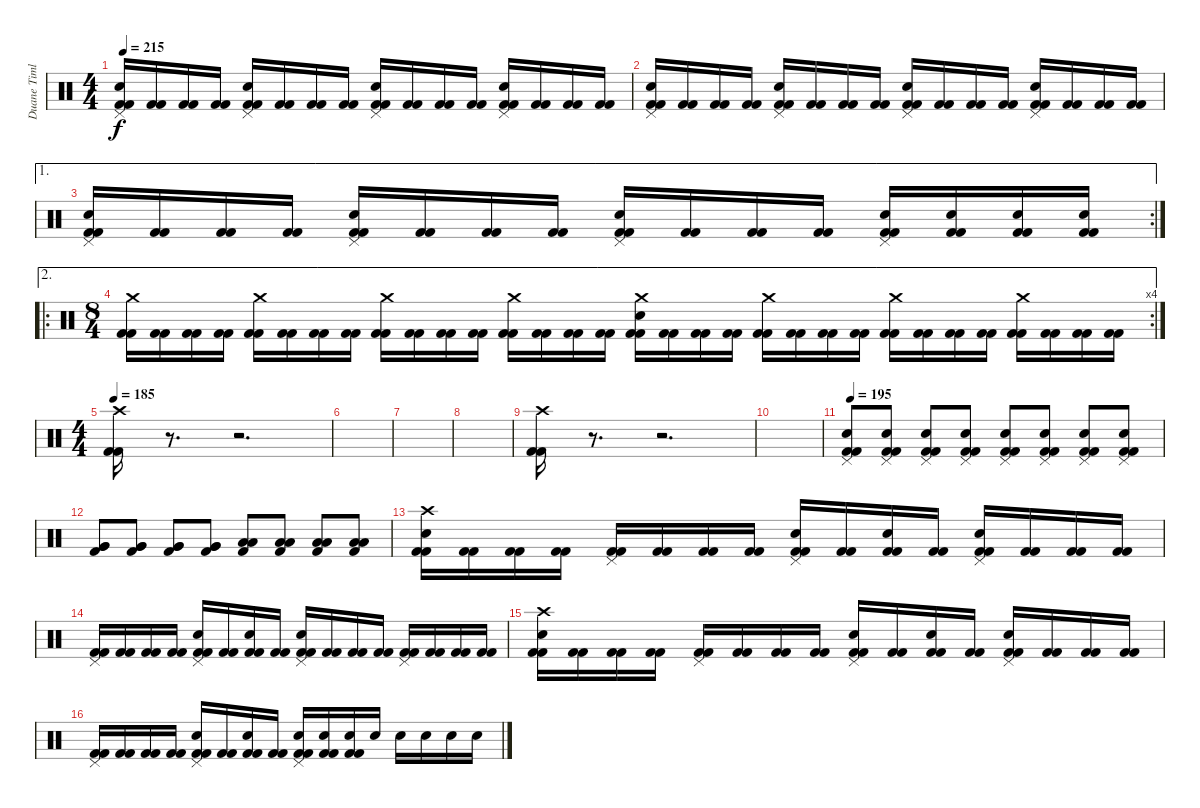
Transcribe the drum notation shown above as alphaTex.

\track ("Duane Timlin" "Duane Timl") {instrument percussion}
\staff {score}
\articulation defaults
\ts (4 4)
\tempo 215
\clef neutral
\ks c
("Pedal Hi-Hat (hit)" "Electric Snare (hit)" "Kick (hit) 2" "Kick (hit) 2").16{dy f} ("Kick (hit) 2" "Kick (hit) 2").16 ("Kick (hit) 2" "Kick (hit) 2").16 ("Kick (hit) 2" "Kick (hit) 2").16 ("Pedal Hi-Hat (hit)" "Electric Snare (hit)" "Kick (hit) 2" "Kick (hit) 2").16 ("Kick (hit) 2" "Kick (hit) 2").16 ("Kick (hit) 2" "Kick (hit) 2").16 ("Kick (hit) 2" "Kick (hit) 2").16 ("Pedal Hi-Hat (hit)" "Electric Snare (hit)" "Kick (hit) 2" "Kick (hit) 2").16 ("Kick (hit) 2" "Kick (hit) 2").16 ("Kick (hit) 2" "Kick (hit) 2").16 ("Kick (hit) 2" "Kick (hit) 2").16 ("Pedal Hi-Hat (hit)" "Electric Snare (hit)" "Kick (hit) 2" "Kick (hit) 2").16 ("Kick (hit) 2" "Kick (hit) 2").16 ("Kick (hit) 2" "Kick (hit) 2").16 ("Kick (hit) 2" "Kick (hit) 2").16 |
("Pedal Hi-Hat (hit)" "Electric Snare (hit)" "Kick (hit) 2" "Kick (hit) 2").16 ("Kick (hit) 2" "Kick (hit) 2").16 ("Kick (hit) 2" "Kick (hit) 2").16 ("Kick (hit) 2" "Kick (hit) 2").16 ("Pedal Hi-Hat (hit)" "Electric Snare (hit)" "Kick (hit) 2" "Kick (hit) 2").16 ("Kick (hit) 2" "Kick (hit) 2").16 ("Kick (hit) 2" "Kick (hit) 2").16 ("Kick (hit) 2" "Kick (hit) 2").16 ("Pedal Hi-Hat (hit)" "Electric Snare (hit)" "Kick (hit) 2" "Kick (hit) 2").16 ("Kick (hit) 2" "Kick (hit) 2").16 ("Kick (hit) 2" "Kick (hit) 2").16 ("Kick (hit) 2" "Kick (hit) 2").16 ("Pedal Hi-Hat (hit)" "Electric Snare (hit)" "Kick (hit) 2" "Kick (hit) 2").16 ("Kick (hit) 2" "Kick (hit) 2").16 ("Kick (hit) 2" "Kick (hit) 2").16 ("Kick (hit) 2" "Kick (hit) 2").16 |
\ae 1
\rc 2
("Pedal Hi-Hat (hit)" "Electric Snare (hit)" "Kick (hit) 2" "Kick (hit) 2").16 ("Kick (hit) 2" "Kick (hit) 2").16 ("Kick (hit) 2" "Kick (hit) 2").16 ("Kick (hit) 2" "Kick (hit) 2").16 ("Pedal Hi-Hat (hit)" "Electric Snare (hit)" "Kick (hit) 2" "Kick (hit) 2").16 ("Kick (hit) 2" "Kick (hit) 2").16 ("Kick (hit) 2" "Kick (hit) 2").16 ("Kick (hit) 2" "Kick (hit) 2").16 ("Pedal Hi-Hat (hit)" "Electric Snare (hit)" "Kick (hit) 2" "Kick (hit) 2").16 ("Kick (hit) 2" "Kick (hit) 2").16 ("Kick (hit) 2" "Kick (hit) 2").16 ("Kick (hit) 2" "Kick (hit) 2").16 ("Pedal Hi-Hat (hit)" "Electric Snare (hit)" "Kick (hit) 2" "Kick (hit) 2").16 ("Electric Snare (hit)" "Kick (hit) 2" "Kick (hit) 2").16 ("Electric Snare (hit)" "Kick (hit) 2" "Kick (hit) 2").16 ("Electric Snare (hit)" "Kick (hit) 2" "Kick (hit) 2").16 |
\ae 2
\ro
\rc 4
\ts (8 4)
("Crash medium (hit)" "Kick (hit) 2" "Kick (hit) 2").16 ("Kick (hit) 2" "Kick (hit) 2").16 ("Kick (hit) 2" "Kick (hit) 2").16 ("Kick (hit) 2" "Kick (hit) 2").16 ("Crash medium (hit)" "Kick (hit) 2" "Kick (hit) 2").16 ("Kick (hit) 2" "Kick (hit) 2").16 ("Kick (hit) 2" "Kick (hit) 2").16 ("Kick (hit) 2" "Kick (hit) 2").16 ("Crash medium (hit)" "Kick (hit) 2" "Kick (hit) 2").16 ("Kick (hit) 2" "Kick (hit) 2").16 ("Kick (hit) 2" "Kick (hit) 2").16 ("Kick (hit) 2" "Kick (hit) 2").16 ("Crash medium (hit)" "Kick (hit) 2" "Kick (hit) 2").16 ("Kick (hit) 2" "Kick (hit) 2").16 ("Kick (hit) 2" "Kick (hit) 2").16 ("Kick (hit) 2" "Kick (hit) 2").16 ("Crash medium (hit)" "Electric Snare (hit)" "Kick (hit) 2" "Kick (hit) 2").16 ("Kick (hit) 2" "Kick (hit) 2").16 ("Kick (hit) 2" "Kick (hit) 2").16 ("Kick (hit) 2" "Kick (hit) 2").16 ("Crash medium (hit)" "Kick (hit) 2" "Kick (hit) 2").16 ("Kick (hit) 2" "Kick (hit) 2").16 ("Kick (hit) 2" "Kick (hit) 2").16 ("Kick (hit) 2" "Kick (hit) 2").16 ("Crash medium (hit)" "Kick (hit) 2" "Kick (hit) 2").16 ("Kick (hit) 2" "Kick (hit) 2").16 ("Kick (hit) 2" "Kick (hit) 2").16 ("Kick (hit) 2" "Kick (hit) 2").16 ("Crash medium (hit)" "Kick (hit) 2" "Kick (hit) 2").16 ("Kick (hit) 2" "Kick (hit) 2").16 ("Kick (hit) 2" "Kick (hit) 2").16 ("Kick (hit) 2" "Kick (hit) 2").16 |
\ts (4 4)
\tempo 185
("Crash high (hit)" "Kick (hit) 2" "Kick (hit) 2").16 r.8{d} r.2{d} |
|
|
|
("Crash high (hit)" "Kick (hit) 2" "Kick (hit) 2").16 r.8{d} r.2{d} |
|
\tempo 195
("Pedal Hi-Hat (hit)" "Electric Snare (hit)" "Kick (hit) 2" "Kick (hit) 2").8 ("Pedal Hi-Hat (hit)" "Electric Snare (hit)" "Kick (hit) 2" "Kick (hit) 2").8 ("Pedal Hi-Hat (hit)" "Electric Snare (hit)" "Kick (hit) 2" "Kick (hit) 2").8 ("Pedal Hi-Hat (hit)" "Electric Snare (hit)" "Kick (hit) 2" "Kick (hit) 2").8 ("Pedal Hi-Hat (hit)" "Electric Snare (hit)" "Kick (hit) 2" "Kick (hit) 2").8 ("Pedal Hi-Hat (hit)" "Electric Snare (hit)" "Kick (hit) 2" "Kick (hit) 2").8 ("Pedal Hi-Hat (hit)" "Electric Snare (hit)" "Kick (hit) 2" "Kick (hit) 2").8 ("Pedal Hi-Hat (hit)" "Electric Snare (hit)" "Kick (hit) 2" "Kick (hit) 2").8 |
("Very Low Tom (hit)" "Very Low Tom (hit)" "Kick (hit) 2").8 ("Very Low Tom (hit)" "Very Low Tom (hit)" "Kick (hit) 2").8 ("Very Low Tom (hit)" "Very Low Tom (hit)" "Kick (hit) 2").8 ("Very Low Tom (hit)" "Very Low Tom (hit)" "Kick (hit) 2").8 ("Low Tom (hit)" "Low Tom (hit)" "Kick (hit) 2").8 ("Low Tom (hit)" "Low Tom (hit)" "Kick (hit) 2").8 ("Low Tom (hit)" "Low Tom (hit)" "Kick (hit) 2").8 ("Low Tom (hit)" "Low Tom (hit)" "Kick (hit) 2").8 |
("Crash high (hit)" "Electric Snare (hit)" "Kick (hit) 2" "Kick (hit) 2").16 ("Kick (hit) 2" "Kick (hit) 2").16 ("Kick (hit) 2" "Kick (hit) 2").16 ("Kick (hit) 2" "Kick (hit) 2").16 ("Pedal Hi-Hat (hit)" "Kick (hit) 2" "Kick (hit) 2").16 ("Kick (hit) 2" "Kick (hit) 2").16 ("Kick (hit) 2" "Kick (hit) 2").16 ("Kick (hit) 2" "Kick (hit) 2").16 ("Pedal Hi-Hat (hit)" "Electric Snare (hit)" "Kick (hit) 2" "Kick (hit) 2").16 ("Kick (hit) 2" "Kick (hit) 2").16 ("Electric Snare (hit)" "Kick (hit) 2" "Kick (hit) 2").16 ("Kick (hit) 2" "Kick (hit) 2").16 ("Pedal Hi-Hat (hit)" "Electric Snare (hit)" "Kick (hit) 2" "Kick (hit) 2").16 ("Kick (hit) 2" "Kick (hit) 2").16 ("Kick (hit) 2" "Kick (hit) 2").16 ("Kick (hit) 2" "Kick (hit) 2").16 |
("Pedal Hi-Hat (hit)" "Kick (hit) 2" "Kick (hit) 2").16 ("Kick (hit) 2" "Kick (hit) 2").16 ("Kick (hit) 2" "Kick (hit) 2").16 ("Kick (hit) 2" "Kick (hit) 2").16 ("Pedal Hi-Hat (hit)" "Electric Snare (hit)" "Kick (hit) 2" "Kick (hit) 2").16 ("Kick (hit) 2" "Kick (hit) 2").16 ("Electric Snare (hit)" "Kick (hit) 2" "Kick (hit) 2").16 ("Kick (hit) 2" "Kick (hit) 2").16 ("Pedal Hi-Hat (hit)" "Electric Snare (hit)" "Kick (hit) 2" "Kick (hit) 2").16 ("Kick (hit) 2" "Kick (hit) 2").16 ("Kick (hit) 2" "Kick (hit) 2").16 ("Kick (hit) 2" "Kick (hit) 2").16 ("Pedal Hi-Hat (hit)" "Kick (hit) 2" "Kick (hit) 2").16 ("Kick (hit) 2" "Kick (hit) 2").16 ("Kick (hit) 2" "Kick (hit) 2").16 ("Kick (hit) 2" "Kick (hit) 2").16 |
("Crash high (hit)" "Electric Snare (hit)" "Kick (hit) 2" "Kick (hit) 2").16 ("Kick (hit) 2" "Kick (hit) 2").16 ("Kick (hit) 2" "Kick (hit) 2").16 ("Kick (hit) 2" "Kick (hit) 2").16 ("Pedal Hi-Hat (hit)" "Kick (hit) 2" "Kick (hit) 2").16 ("Kick (hit) 2" "Kick (hit) 2").16 ("Kick (hit) 2" "Kick (hit) 2").16 ("Kick (hit) 2" "Kick (hit) 2").16 ("Pedal Hi-Hat (hit)" "Electric Snare (hit)" "Kick (hit) 2" "Kick (hit) 2").16 ("Kick (hit) 2" "Kick (hit) 2").16 ("Electric Snare (hit)" "Kick (hit) 2" "Kick (hit) 2").16 ("Kick (hit) 2" "Kick (hit) 2").16 ("Pedal Hi-Hat (hit)" "Electric Snare (hit)" "Kick (hit) 2" "Kick (hit) 2").16 ("Kick (hit) 2" "Kick (hit) 2").16 ("Kick (hit) 2" "Kick (hit) 2").16 ("Kick (hit) 2" "Kick (hit) 2").16 |
("Pedal Hi-Hat (hit)" "Kick (hit) 2" "Kick (hit) 2").16 ("Kick (hit) 2" "Kick (hit) 2").16 ("Kick (hit) 2" "Kick (hit) 2").16 ("Kick (hit) 2" "Kick (hit) 2").16 ("Pedal Hi-Hat (hit)" "Electric Snare (hit)" "Kick (hit) 2" "Kick (hit) 2").16 ("Kick (hit) 2" "Kick (hit) 2").16 ("Electric Snare (hit)" "Kick (hit) 2" "Kick (hit) 2").16 ("Kick (hit) 2" "Kick (hit) 2").16 ("Pedal Hi-Hat (hit)" "Electric Snare (hit)" "Kick (hit) 2" "Kick (hit) 2").16 ("Electric Snare (hit)" "Kick (hit) 2" "Kick (hit) 2").16 ("Electric Snare (hit)" "Kick (hit) 2" "Kick (hit) 2").16 "Electric Snare (hit)".16 "Electric Snare (hit)".16 "Electric Snare (hit)".16 "Electric Snare (hit)".16 "Electric Snare (hit)".16
